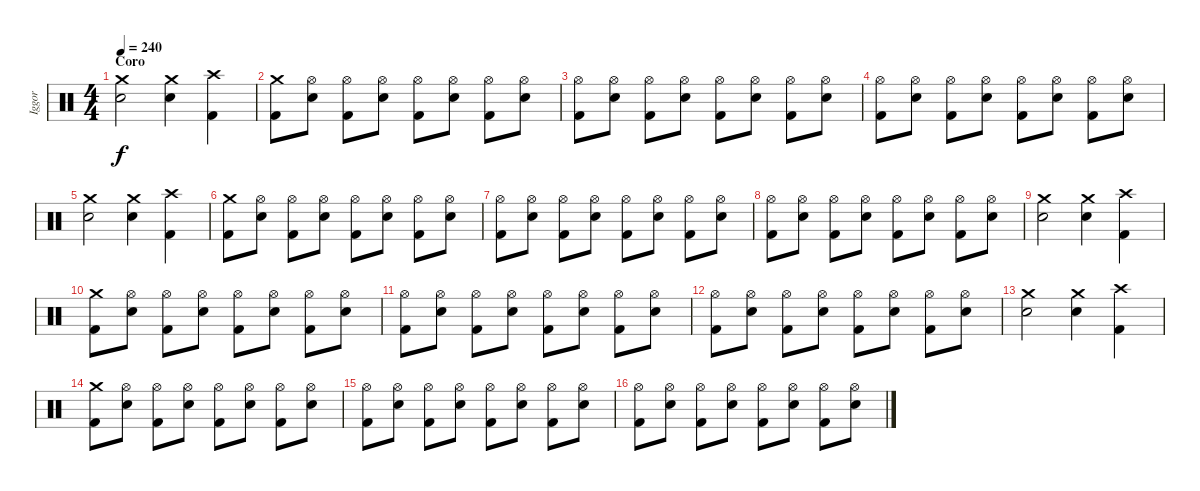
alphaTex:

\track ("Iggor" "Iggor") {instrument percussion}
\staff {score}
\articulation defaults
\ts (4 4)
\section ("" "Coro")
\tempo 240
\clef neutral
\ks c
("Crash medium (hit)" "Snare (hit) 2").2{dy f} ("Crash medium (hit)" "Snare (hit) 2").4 ("Crash high (hit)" "Kick (hit) 2").4 |
("Crash medium (hit)" "Kick (hit) 2").8 ("Hi-Hat (open)" "Snare (hit) 2").8 ("Hi-Hat (open)" "Kick (hit) 2").8 ("Hi-Hat (open)" "Snare (hit) 2").8 ("Hi-Hat (open)" "Kick (hit) 2").8 ("Hi-Hat (open)" "Snare (hit) 2").8 ("Hi-Hat (open)" "Kick (hit) 2").8 ("Hi-Hat (open)" "Snare (hit) 2").8 |
("Hi-Hat (open)" "Kick (hit) 2").8 ("Hi-Hat (open)" "Snare (hit) 2").8 ("Hi-Hat (open)" "Kick (hit) 2").8 ("Hi-Hat (open)" "Snare (hit) 2").8 ("Hi-Hat (open)" "Kick (hit) 2").8 ("Hi-Hat (open)" "Snare (hit) 2").8 ("Hi-Hat (open)" "Kick (hit) 2").8 ("Hi-Hat (open)" "Snare (hit) 2").8 |
("Hi-Hat (open)" "Kick (hit) 2").8 ("Hi-Hat (open)" "Snare (hit) 2").8 ("Hi-Hat (open)" "Kick (hit) 2").8 ("Hi-Hat (open)" "Snare (hit) 2").8 ("Hi-Hat (open)" "Kick (hit) 2").8 ("Hi-Hat (open)" "Snare (hit) 2").8 ("Hi-Hat (open)" "Kick (hit) 2").8 ("Hi-Hat (open)" "Snare (hit) 2").8 |
("Crash medium (hit)" "Snare (hit) 2").2 ("Crash medium (hit)" "Snare (hit) 2").4 ("Crash high (hit)" "Kick (hit) 2").4 |
("Crash medium (hit)" "Kick (hit) 2").8 ("Hi-Hat (open)" "Snare (hit) 2").8 ("Hi-Hat (open)" "Kick (hit) 2").8 ("Hi-Hat (open)" "Snare (hit) 2").8 ("Hi-Hat (open)" "Kick (hit) 2").8 ("Hi-Hat (open)" "Snare (hit) 2").8 ("Hi-Hat (open)" "Kick (hit) 2").8 ("Hi-Hat (open)" "Snare (hit) 2").8 |
("Hi-Hat (open)" "Kick (hit) 2").8 ("Hi-Hat (open)" "Snare (hit) 2").8 ("Hi-Hat (open)" "Kick (hit) 2").8 ("Hi-Hat (open)" "Snare (hit) 2").8 ("Hi-Hat (open)" "Kick (hit) 2").8 ("Hi-Hat (open)" "Snare (hit) 2").8 ("Hi-Hat (open)" "Kick (hit) 2").8 ("Hi-Hat (open)" "Snare (hit) 2").8 |
("Hi-Hat (open)" "Kick (hit) 2").8 ("Hi-Hat (open)" "Snare (hit) 2").8 ("Hi-Hat (open)" "Kick (hit) 2").8 ("Hi-Hat (open)" "Snare (hit) 2").8 ("Hi-Hat (open)" "Kick (hit) 2").8 ("Hi-Hat (open)" "Snare (hit) 2").8 ("Hi-Hat (open)" "Kick (hit) 2").8 ("Hi-Hat (open)" "Snare (hit) 2").8 |
("Crash medium (hit)" "Snare (hit) 2").2 ("Crash medium (hit)" "Snare (hit) 2").4 ("Crash high (hit)" "Kick (hit) 2").4 |
("Crash medium (hit)" "Kick (hit) 2").8 ("Hi-Hat (open)" "Snare (hit) 2").8 ("Hi-Hat (open)" "Kick (hit) 2").8 ("Hi-Hat (open)" "Snare (hit) 2").8 ("Hi-Hat (open)" "Kick (hit) 2").8 ("Hi-Hat (open)" "Snare (hit) 2").8 ("Hi-Hat (open)" "Kick (hit) 2").8 ("Hi-Hat (open)" "Snare (hit) 2").8 |
("Hi-Hat (open)" "Kick (hit) 2").8 ("Hi-Hat (open)" "Snare (hit) 2").8 ("Hi-Hat (open)" "Kick (hit) 2").8 ("Hi-Hat (open)" "Snare (hit) 2").8 ("Hi-Hat (open)" "Kick (hit) 2").8 ("Hi-Hat (open)" "Snare (hit) 2").8 ("Hi-Hat (open)" "Kick (hit) 2").8 ("Hi-Hat (open)" "Snare (hit) 2").8 |
("Hi-Hat (open)" "Kick (hit) 2").8 ("Hi-Hat (open)" "Snare (hit) 2").8 ("Hi-Hat (open)" "Kick (hit) 2").8 ("Hi-Hat (open)" "Snare (hit) 2").8 ("Hi-Hat (open)" "Kick (hit) 2").8 ("Hi-Hat (open)" "Snare (hit) 2").8 ("Hi-Hat (open)" "Kick (hit) 2").8 ("Hi-Hat (open)" "Snare (hit) 2").8 |
("Crash medium (hit)" "Snare (hit) 2").2 ("Crash medium (hit)" "Snare (hit) 2").4 ("Crash high (hit)" "Kick (hit) 2").4 |
("Crash medium (hit)" "Kick (hit) 2").8 ("Hi-Hat (open)" "Snare (hit) 2").8 ("Hi-Hat (open)" "Kick (hit) 2").8 ("Hi-Hat (open)" "Snare (hit) 2").8 ("Hi-Hat (open)" "Kick (hit) 2").8 ("Hi-Hat (open)" "Snare (hit) 2").8 ("Hi-Hat (open)" "Kick (hit) 2").8 ("Hi-Hat (open)" "Snare (hit) 2").8 |
("Hi-Hat (open)" "Kick (hit) 2").8 ("Hi-Hat (open)" "Snare (hit) 2").8 ("Hi-Hat (open)" "Kick (hit) 2").8 ("Hi-Hat (open)" "Snare (hit) 2").8 ("Hi-Hat (open)" "Kick (hit) 2").8 ("Hi-Hat (open)" "Snare (hit) 2").8 ("Hi-Hat (open)" "Kick (hit) 2").8 ("Hi-Hat (open)" "Snare (hit) 2").8 |
("Hi-Hat (open)" "Kick (hit) 2").8 ("Hi-Hat (open)" "Snare (hit) 2").8 ("Hi-Hat (open)" "Kick (hit) 2").8 ("Hi-Hat (open)" "Snare (hit) 2").8 ("Hi-Hat (open)" "Kick (hit) 2").8 ("Hi-Hat (open)" "Snare (hit) 2").8 ("Hi-Hat (open)" "Kick (hit) 2").8 ("Hi-Hat (open)" "Snare (hit) 2").8
